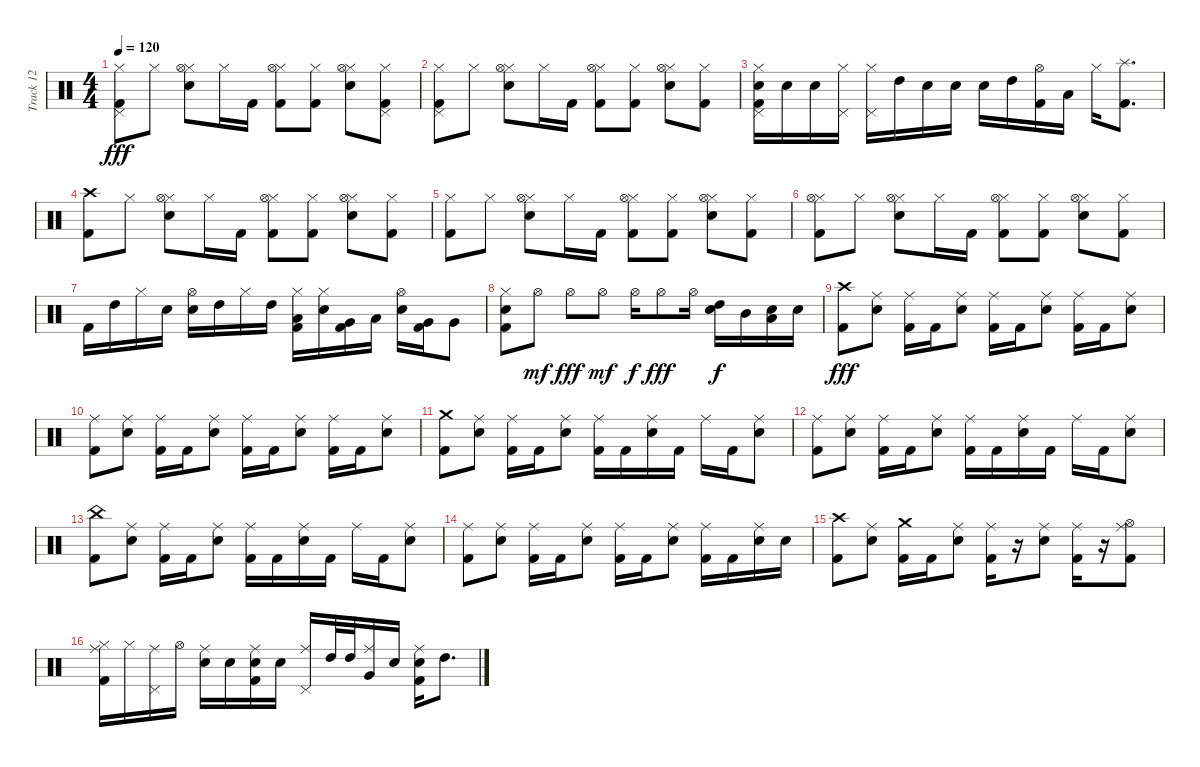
\track ("Track 12" "Track 12") {instrument percussion}
\staff {score}
\articulation defaults
\ts (4 4)
\tempo 120
\clef neutral
\ks c
("Hi-Hat (closed)" "Pedal Hi-Hat (hit)" "Kick (hit) 2").8{dy fff} "Hi-Hat (closed)".8 ("Hi-Hat (closed)" "Hi-Hat (open)" "Snare (hit) 2").8 "Hi-Hat (closed)".16 "Kick (hit) 2".16 ("Hi-Hat (closed)" "Hi-Hat (open)" "Kick (hit) 2").8 ("Hi-Hat (closed)" "Kick (hit) 2").8 ("Hi-Hat (closed)" "Hi-Hat (open)" "Snare (hit) 2").8 ("Hi-Hat (closed)" "Pedal Hi-Hat (hit)" "Kick (hit) 2").8 |
("Hi-Hat (closed)" "Pedal Hi-Hat (hit)" "Kick (hit) 2").8 "Hi-Hat (closed)".8 ("Hi-Hat (closed)" "Hi-Hat (open)" "Snare (hit) 2").8 "Hi-Hat (closed)".16 "Kick (hit) 2".16 ("Hi-Hat (closed)" "Hi-Hat (open)" "Kick (hit) 2").8 ("Hi-Hat (closed)" "Kick (hit) 2").8 ("Hi-Hat (closed)" "Hi-Hat (open)" "Snare (hit) 2").8 ("Hi-Hat (closed)" "Kick (hit) 2").8 |
("Hi-Hat (closed)" "Pedal Hi-Hat (hit)" "Snare (hit) 2" "Kick (hit) 2").16 "Electric Snare (hit)".16 "Electric Snare (hit)".16 ("Hi-Hat (closed)" "Pedal Hi-Hat (hit)").16 ("Hi-Hat (closed)" "Pedal Hi-Hat (hit)").16 "High Tom (hit)".16 "Electric Snare (hit)".16 "Snare (hit) 2".16 "Snare (hit) 2".16 "High Tom (hit)".16 ("Hi-Hat (open)" "Kick (hit) 2").16 "Low Tom (hit)".16 "Hi-Hat (closed)".16 ("Splash (hit)" "Kick (hit) 2").8{d} |
("Crash high (hit)" "Kick (hit) 2").8 "Hi-Hat (closed)".8 ("Hi-Hat (closed)" "Hi-Hat (open)" "Snare (hit) 2").8 "Hi-Hat (closed)".16 "Kick (hit) 2".16 ("Hi-Hat (closed)" "Hi-Hat (open)" "Kick (hit) 2").8 ("Hi-Hat (closed)" "Kick (hit) 2").8 ("Hi-Hat (closed)" "Hi-Hat (open)" "Snare (hit) 2").8 ("Hi-Hat (closed)" "Kick (hit) 2").8 |
("Hi-Hat (closed)" "Kick (hit) 2").8 "Hi-Hat (closed)".8 ("Hi-Hat (closed)" "Hi-Hat (open)" "Snare (hit) 2").8 "Hi-Hat (closed)".16 "Kick (hit) 2".16 ("Hi-Hat (closed)" "Hi-Hat (open)" "Kick (hit) 2").8 ("Hi-Hat (closed)" "Kick (hit) 2").8 ("Hi-Hat (closed)" "Hi-Hat (open)" "Snare (hit) 2").8 ("Hi-Hat (closed)" "Kick (hit) 2").8 |
("Hi-Hat (closed)" "Hi-Hat (open)" "Kick (hit) 2").8 "Hi-Hat (closed)".8 ("Hi-Hat (closed)" "Hi-Hat (open)" "Snare (hit) 2").8 "Hi-Hat (closed)".16 "Kick (hit) 2".16 ("Hi-Hat (closed)" "Hi-Hat (open)" "Kick (hit) 2").8 ("Hi-Hat (closed)" "Kick (hit) 2").8 ("Hi-Hat (closed)" "Hi-Hat (open)" "Snare (hit) 2").8 ("Hi-Hat (closed)" "Kick (hit) 2").8 |
"Kick (hit) 2".16 "High Tom (hit)".16 "Hi-Hat (closed)".16 "Snare (hit) 2".16 ("Hi-Hat (open)" "Snare (hit) 2").16 "High Tom (hit)".16 "Hi-Hat (closed)".16 "High Tom (hit)".16 ("Hi-Hat (closed)" "Low Tom (hit)" "Kick (hit) 2").16 ("Hi-Hat (closed)" "Snare (hit) 2").16 ("Very Low Tom (hit)" "Kick (hit) 2").16 "Low Floor Tom (hit)".16 ("Hi-Hat (open)" "Electric Snare (hit)").16 ("Very Low Tom (hit)" "Kick (hit) 2").16 "Very Low Tom (hit)".8 |
("Hi-Hat (closed)" "Snare (hit) 2" "Kick (hit) 2").8 "Hi-Hat (open)".8{dy mf} "Hi-Hat (open)".8{dy fff} "Hi-Hat (open)".8{dy mf} "Hi-Hat (open)".16{dy f} "Hi-Hat (open)".8{dy fff} "Hi-Hat (open)".16 ("High Tom (hit)" "Snare (hit) 2").16{dy f} "Mid Tom (hit)".16 ("Low Tom (hit)" "Snare (hit) 2").16 "Snare (hit) 2".16 |
("Crash high (hit)" "Kick (hit) 2").8{dy fff} ("Ride (middle)" "Snare (hit) 2").8 ("Ride (middle)" "Kick (hit) 2").16 "Kick (hit) 2".16 ("Ride (middle)" "Snare (hit) 2").8 ("Ride (middle)" "Kick (hit) 2").16 "Kick (hit) 2".16 ("Ride (middle)" "Snare (hit) 2").8 ("Ride (middle)" "Kick (hit) 2").16 "Kick (hit) 2".16 ("Ride (middle)" "Snare (hit) 2").8 |
("Ride (middle)" "Kick (hit) 2").8 ("Ride (middle)" "Snare (hit) 2").8 ("Ride (middle)" "Kick (hit) 2").16 "Kick (hit) 2".16 ("Ride (middle)" "Snare (hit) 2").8 ("Ride (middle)" "Kick (hit) 2").16 "Kick (hit) 2".16 ("Ride (middle)" "Snare (hit) 2").8 ("Ride (middle)" "Kick (hit) 2").16 "Kick (hit) 2".16 ("Ride (middle)" "Snare (hit) 2").8 |
("Crash medium (hit)" "Kick (hit) 2").8 ("Ride (middle)" "Snare (hit) 2").8 ("Ride (middle)" "Kick (hit) 2").16 "Kick (hit) 2".16 ("Ride (middle)" "Snare (hit) 2").8 ("Ride (middle)" "Kick (hit) 2").16 "Kick (hit) 2".16 ("Ride (middle)" "Snare (hit) 2").16 "Kick (hit) 2".16 "Ride (middle)".16 "Kick (hit) 2".16 ("Ride (middle)" "Snare (hit) 2").8 |
("Ride (middle)" "Kick (hit) 2").8 ("Ride (middle)" "Snare (hit) 2").8 ("Ride (middle)" "Kick (hit) 2").16 "Kick (hit) 2".16 ("Ride (middle)" "Snare (hit) 2").8 ("Ride (middle)" "Kick (hit) 2").16 "Kick (hit) 2".16 ("Ride (middle)" "Snare (hit) 2").16 "Kick (hit) 2".16 "Ride (middle)".16 "Kick (hit) 2".16 ("Ride (middle)" "Snare (hit) 2").8 |
("China (hit)" "Kick (hit) 2").8 ("Ride (middle)" "Snare (hit) 2").8 ("Ride (middle)" "Kick (hit) 2").16 "Kick (hit) 2".16 ("Ride (middle)" "Snare (hit) 2").8 ("Ride (middle)" "Kick (hit) 2").16 "Kick (hit) 2".16 ("Ride (middle)" "Snare (hit) 2").16 "Kick (hit) 2".16 "Ride (middle)".16 "Kick (hit) 2".16 ("Ride (middle)" "Snare (hit) 2").8 |
("Ride (middle)" "Kick (hit) 2").8 ("Ride (middle)" "Snare (hit) 2").8 ("Ride (middle)" "Kick (hit) 2").16 "Kick (hit) 2".16 ("Ride (middle)" "Snare (hit) 2").8 ("Ride (middle)" "Kick (hit) 2").16 "Kick (hit) 2".16 ("Ride (middle)" "Snare (hit) 2").8 ("Ride (middle)" "Kick (hit) 2").16 "Kick (hit) 2".16 ("Ride (middle)" "Snare (hit) 2").16 "Electric Snare (hit)".16 |
("Crash high (hit)" "Kick (hit) 2").8 ("Ride (middle)" "Snare (hit) 2").8 ("Crash medium (hit)" "Kick (hit) 2").16 "Kick (hit) 2".16 ("Ride (middle)" "Snare (hit) 2").8 ("Ride (middle)" "Kick (hit) 2").16 r.16 ("Ride (middle)" "Snare (hit) 2").8 ("Ride (middle)" "Kick (hit) 2").16 r.16 ("Hi-Hat (open)" "Ride (middle)" "Kick (hit) 2").8 |
("Hi-Hat (closed)" "Ride (middle)" "Kick (hit) 2").16 "Hi-Hat (closed)".16 ("Pedal Hi-Hat (hit)" "Ride (middle)").16 "Hi-Hat (open)".16 ("Ride (middle)" "Snare (hit) 2").16 "Electric Snare (hit)".16 ("Ride (middle)" "Snare (hit) 2" "Kick (hit) 2").16 "Snare (hit) 2".16 ("Pedal Hi-Hat (hit)" "Ride (middle)").16 "High Tom (hit)".32 "High Tom (hit)".32 ("Ride (middle)" "Very Low Tom (hit)").16 "Electric Snare (hit)".16 ("Ride (middle)" "Electric Snare (hit)" "Kick (hit) 2").16 "High Tom (hit)".8{d}
